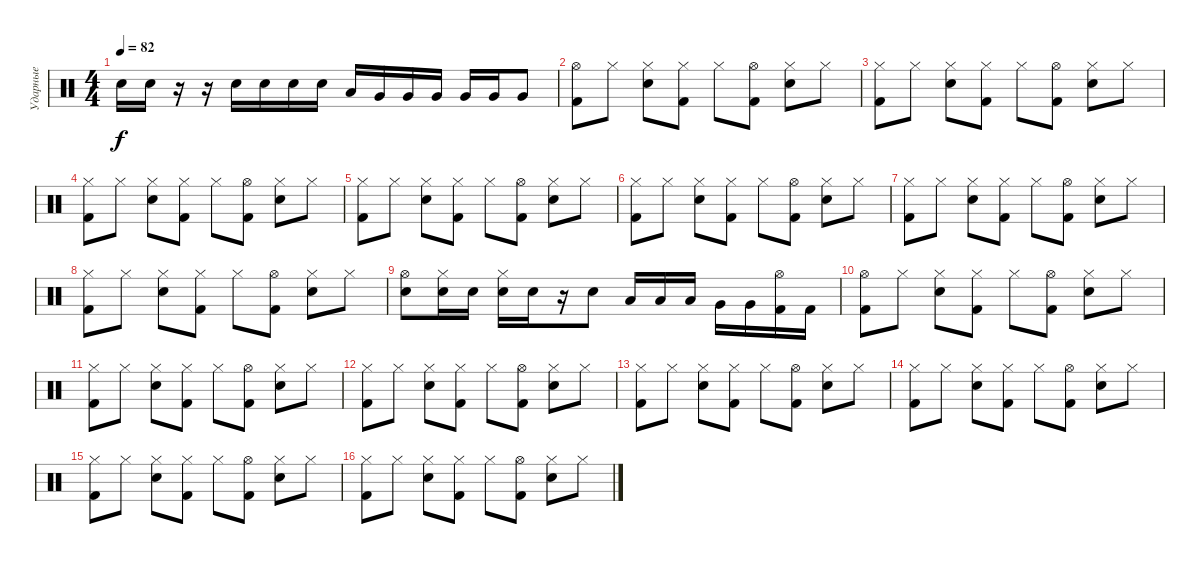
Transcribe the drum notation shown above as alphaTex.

\track ("Ударные" "Ударные") {instrument percussion}
\staff {score}
\articulation defaults
\ts (4 4)
\tempo 82
\clef neutral
\ks c "Electric Snare (hit)".16{dy f} "Electric Snare (hit)".16
r.16 r.16 "Electric Snare (hit)".16 "Electric Snare (hit)".16 "Electric Snare (hit)".16 "Electric Snare (hit)".16 "Low Tom (hit)".16 "Very Low Tom (hit)".16 "Very Low Tom (hit)".16 "Very Low Tom (hit)".16 "Very Low Tom (hit)".16 "Very Low Tom (hit)".16 "Very Low Tom (hit)".8 |
("Hi-Hat (open)" "Kick (hit) 2").8 "Hi-Hat (closed)".8 ("Hi-Hat (closed)" "Electric Snare (hit)").8 ("Hi-Hat (closed)" "Kick (hit) 2").8 "Hi-Hat (closed)".8 ("Hi-Hat (open)" "Kick (hit) 2").8 ("Hi-Hat (closed)" "Electric Snare (hit)").8 "Hi-Hat (closed)".8 |
("Hi-Hat (closed)" "Kick (hit) 2").8 "Hi-Hat (closed)".8 ("Hi-Hat (closed)" "Electric Snare (hit)").8 ("Hi-Hat (closed)" "Kick (hit) 2").8 "Hi-Hat (closed)".8 ("Hi-Hat (open)" "Kick (hit) 2").8 ("Hi-Hat (closed)" "Electric Snare (hit)").8 "Hi-Hat (closed)".8 |
("Hi-Hat (closed)" "Kick (hit) 2").8 "Hi-Hat (closed)".8 ("Hi-Hat (closed)" "Electric Snare (hit)").8 ("Hi-Hat (closed)" "Kick (hit) 2").8 "Hi-Hat (closed)".8 ("Hi-Hat (open)" "Kick (hit) 2").8 ("Hi-Hat (closed)" "Electric Snare (hit)").8 "Hi-Hat (closed)".8 |
("Hi-Hat (closed)" "Kick (hit) 2").8 "Hi-Hat (closed)".8 ("Hi-Hat (closed)" "Electric Snare (hit)").8 ("Hi-Hat (closed)" "Kick (hit) 2").8 "Hi-Hat (closed)".8 ("Hi-Hat (open)" "Kick (hit) 2").8 ("Hi-Hat (closed)" "Electric Snare (hit)").8 "Hi-Hat (closed)".8 |
("Hi-Hat (closed)" "Kick (hit) 2").8 "Hi-Hat (closed)".8 ("Hi-Hat (closed)" "Electric Snare (hit)").8 ("Hi-Hat (closed)" "Kick (hit) 2").8 "Hi-Hat (closed)".8 ("Hi-Hat (open)" "Kick (hit) 2").8 ("Hi-Hat (closed)" "Electric Snare (hit)").8 "Hi-Hat (closed)".8 |
("Hi-Hat (closed)" "Kick (hit) 2").8 "Hi-Hat (closed)".8 ("Hi-Hat (closed)" "Electric Snare (hit)").8 ("Hi-Hat (closed)" "Kick (hit) 2").8 "Hi-Hat (closed)".8 ("Hi-Hat (open)" "Kick (hit) 2").8 ("Hi-Hat (closed)" "Electric Snare (hit)").8 "Hi-Hat (closed)".8 |
("Hi-Hat (closed)" "Kick (hit) 2").8 "Hi-Hat (closed)".8 ("Hi-Hat (closed)" "Electric Snare (hit)").8 ("Hi-Hat (closed)" "Kick (hit) 2").8 "Hi-Hat (closed)".8 ("Hi-Hat (open)" "Kick (hit) 2").8 ("Hi-Hat (closed)" "Electric Snare (hit)").8 "Hi-Hat (closed)".8 |
("Electric Snare (hit)" "Hi-Hat (open)").8 ("Electric Snare (hit)" "Hi-Hat (closed)").16 "Electric Snare (hit)".16 ("Electric Snare (hit)" "Hi-Hat (closed)").16 "Electric Snare (hit)".16 r.16 "Electric Snare (hit)".8 "Low Tom (hit)".16 "Low Tom (hit)".16 "Low Tom (hit)".16 "Very Low Tom (hit)".16 "Very Low Tom (hit)".16 ("Kick (hit) 2" "Hi-Hat (open)").16 "Kick (hit) 2".16 |
("Hi-Hat (open)" "Kick (hit) 2").8 "Hi-Hat (closed)".8 ("Hi-Hat (closed)" "Electric Snare (hit)").8 ("Hi-Hat (closed)" "Kick (hit) 2").8 "Hi-Hat (closed)".8 ("Hi-Hat (open)" "Kick (hit) 2").8 ("Hi-Hat (closed)" "Electric Snare (hit)").8 "Hi-Hat (closed)".8 |
("Hi-Hat (closed)" "Kick (hit) 2").8 "Hi-Hat (closed)".8 ("Hi-Hat (closed)" "Electric Snare (hit)").8 ("Hi-Hat (closed)" "Kick (hit) 2").8 "Hi-Hat (closed)".8 ("Hi-Hat (open)" "Kick (hit) 2").8 ("Hi-Hat (closed)" "Electric Snare (hit)").8 "Hi-Hat (closed)".8 |
("Hi-Hat (closed)" "Kick (hit) 2").8 "Hi-Hat (closed)".8 ("Hi-Hat (closed)" "Electric Snare (hit)").8 ("Hi-Hat (closed)" "Kick (hit) 2").8 "Hi-Hat (closed)".8 ("Hi-Hat (open)" "Kick (hit) 2").8 ("Hi-Hat (closed)" "Electric Snare (hit)").8 "Hi-Hat (closed)".8 |
("Hi-Hat (closed)" "Kick (hit) 2").8 "Hi-Hat (closed)".8 ("Hi-Hat (closed)" "Electric Snare (hit)").8 ("Hi-Hat (closed)" "Kick (hit) 2").8 "Hi-Hat (closed)".8 ("Hi-Hat (open)" "Kick (hit) 2").8 ("Hi-Hat (closed)" "Electric Snare (hit)").8 "Hi-Hat (closed)".8 |
("Hi-Hat (closed)" "Kick (hit) 2").8 "Hi-Hat (closed)".8 ("Hi-Hat (closed)" "Electric Snare (hit)").8 ("Hi-Hat (closed)" "Kick (hit) 2").8 "Hi-Hat (closed)".8 ("Hi-Hat (open)" "Kick (hit) 2").8 ("Hi-Hat (closed)" "Electric Snare (hit)").8 "Hi-Hat (closed)".8 |
("Hi-Hat (closed)" "Kick (hit) 2").8 "Hi-Hat (closed)".8 ("Hi-Hat (closed)" "Electric Snare (hit)").8 ("Hi-Hat (closed)" "Kick (hit) 2").8 "Hi-Hat (closed)".8 ("Hi-Hat (open)" "Kick (hit) 2").8 ("Hi-Hat (closed)" "Electric Snare (hit)").8 "Hi-Hat (closed)".8 |
("Hi-Hat (closed)" "Kick (hit) 2").8 "Hi-Hat (closed)".8 ("Hi-Hat (closed)" "Electric Snare (hit)").8 ("Hi-Hat (closed)" "Kick (hit) 2").8 "Hi-Hat (closed)".8 ("Hi-Hat (open)" "Kick (hit) 2").8 ("Hi-Hat (closed)" "Electric Snare (hit)").8 "Hi-Hat (closed)".8
